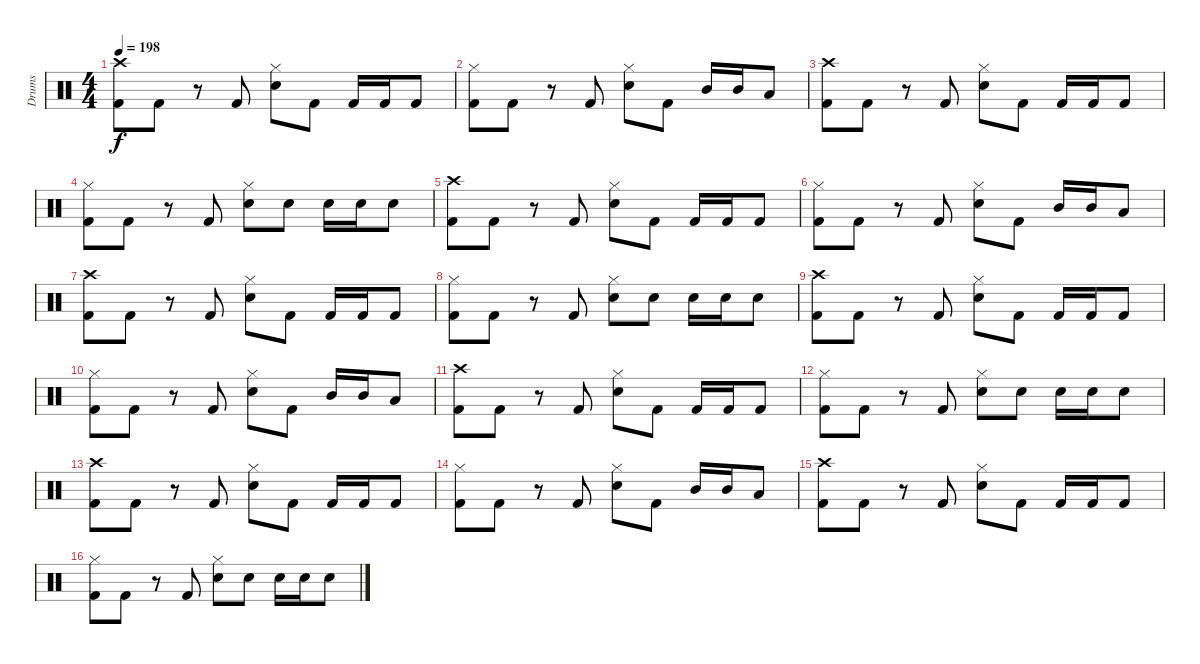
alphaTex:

\track ("Drums" "Drums") {instrument percussion}
\staff {score}
\articulation defaults
\ts (4 4)
\tempo 198
\clef neutral
\ks c
("Crash high (hit)" "Kick (hit) 2").8{dy f} "Kick (hit) 2".8 r.8 "Kick (hit) 2".8 ("Hi-Hat (closed)" "Snare (hit) 2").8 "Kick (hit) 2".8 "Kick (hit) 2".16 "Kick (hit) 2".16 "Kick (hit) 2".8 |
("Hi-Hat (closed)" "Kick (hit) 2").8 "Kick (hit) 2".8 r.8 "Kick (hit) 2".8 ("Hi-Hat (closed)" "Snare (hit) 2").8 "Kick (hit) 2".8 "Mid Tom (hit)".16 "Mid Tom (hit)".16 "Low Tom (hit)".8 |
("Crash high (hit)" "Kick (hit) 2").8 "Kick (hit) 2".8 r.8 "Kick (hit) 2".8 ("Hi-Hat (closed)" "Snare (hit) 2").8 "Kick (hit) 2".8 "Kick (hit) 2".16 "Kick (hit) 2".16 "Kick (hit) 2".8 |
("Hi-Hat (closed)" "Kick (hit) 2").8 "Kick (hit) 2".8 r.8 "Kick (hit) 2".8 ("Hi-Hat (closed)" "Snare (hit) 2").8 "Snare (hit) 2".8 "Snare (hit) 2".16 "Snare (hit) 2".16 "Snare (hit) 2".8 |
("Crash high (hit)" "Kick (hit) 2").8 "Kick (hit) 2".8 r.8 "Kick (hit) 2".8 ("Hi-Hat (closed)" "Snare (hit) 2").8 "Kick (hit) 2".8 "Kick (hit) 2".16 "Kick (hit) 2".16 "Kick (hit) 2".8 |
("Hi-Hat (closed)" "Kick (hit) 2").8 "Kick (hit) 2".8 r.8 "Kick (hit) 2".8 ("Hi-Hat (closed)" "Snare (hit) 2").8 "Kick (hit) 2".8 "Mid Tom (hit)".16 "Mid Tom (hit)".16 "Low Tom (hit)".8 |
("Crash high (hit)" "Kick (hit) 2").8 "Kick (hit) 2".8 r.8 "Kick (hit) 2".8 ("Hi-Hat (closed)" "Snare (hit) 2").8 "Kick (hit) 2".8 "Kick (hit) 2".16 "Kick (hit) 2".16 "Kick (hit) 2".8 |
("Hi-Hat (closed)" "Kick (hit) 2").8 "Kick (hit) 2".8 r.8 "Kick (hit) 2".8 ("Hi-Hat (closed)" "Snare (hit) 2").8 "Snare (hit) 2".8 "Snare (hit) 2".16 "Snare (hit) 2".16 "Snare (hit) 2".8 |
("Crash high (hit)" "Kick (hit) 2").8 "Kick (hit) 2".8 r.8 "Kick (hit) 2".8 ("Hi-Hat (closed)" "Snare (hit) 2").8 "Kick (hit) 2".8 "Kick (hit) 2".16 "Kick (hit) 2".16 "Kick (hit) 2".8 |
("Hi-Hat (closed)" "Kick (hit) 2").8 "Kick (hit) 2".8 r.8 "Kick (hit) 2".8 ("Hi-Hat (closed)" "Snare (hit) 2").8 "Kick (hit) 2".8 "Mid Tom (hit)".16 "Mid Tom (hit)".16 "Low Tom (hit)".8 |
("Crash high (hit)" "Kick (hit) 2").8 "Kick (hit) 2".8 r.8 "Kick (hit) 2".8 ("Hi-Hat (closed)" "Snare (hit) 2").8 "Kick (hit) 2".8 "Kick (hit) 2".16 "Kick (hit) 2".16 "Kick (hit) 2".8 |
("Hi-Hat (closed)" "Kick (hit) 2").8 "Kick (hit) 2".8 r.8 "Kick (hit) 2".8 ("Hi-Hat (closed)" "Snare (hit) 2").8 "Snare (hit) 2".8 "Snare (hit) 2".16 "Snare (hit) 2".16 "Snare (hit) 2".8 |
("Crash high (hit)" "Kick (hit) 2").8 "Kick (hit) 2".8 r.8 "Kick (hit) 2".8 ("Hi-Hat (closed)" "Snare (hit) 2").8 "Kick (hit) 2".8 "Kick (hit) 2".16 "Kick (hit) 2".16 "Kick (hit) 2".8 |
("Hi-Hat (closed)" "Kick (hit) 2").8 "Kick (hit) 2".8 r.8 "Kick (hit) 2".8 ("Hi-Hat (closed)" "Snare (hit) 2").8 "Kick (hit) 2".8 "Mid Tom (hit)".16 "Mid Tom (hit)".16 "Low Tom (hit)".8 |
("Crash high (hit)" "Kick (hit) 2").8 "Kick (hit) 2".8 r.8 "Kick (hit) 2".8 ("Hi-Hat (closed)" "Snare (hit) 2").8 "Kick (hit) 2".8 "Kick (hit) 2".16 "Kick (hit) 2".16 "Kick (hit) 2".8 |
("Hi-Hat (closed)" "Kick (hit) 2").8 "Kick (hit) 2".8 r.8 "Kick (hit) 2".8 ("Hi-Hat (closed)" "Snare (hit) 2").8 "Snare (hit) 2".8 "Snare (hit) 2".16 "Snare (hit) 2".16 "Snare (hit) 2".8
